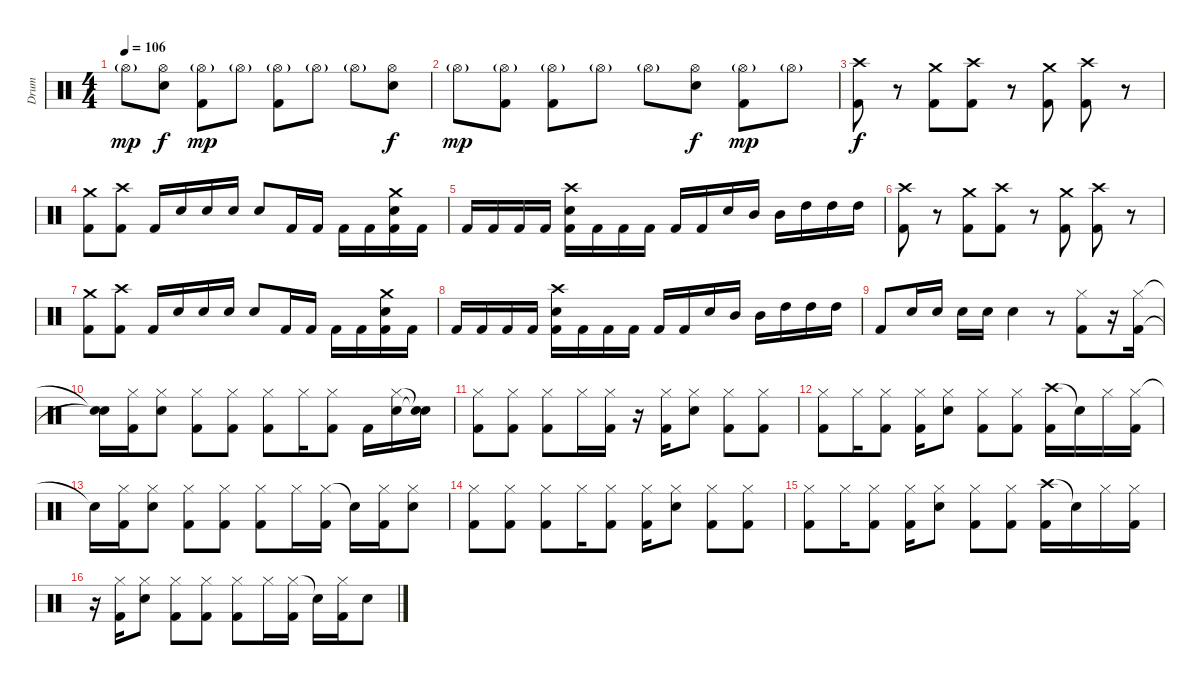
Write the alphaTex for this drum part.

\track ("Drum" "Drum") {instrument percussion}
\staff {score}
\articulation defaults
\ts (4 4)
\tempo 106
\clef neutral
\ks c "Hi-Hat (open)"{g}.8{dy mp}
("Hi-Hat (open)" "Electric Snare (hit)").8{dy f} ("Hi-Hat (open)"{g} "Kick (hit) 2").8{dy mp} "Hi-Hat (open)"{g}.8 ("Hi-Hat (open)"{g} "Kick (hit) 2").8 "Hi-Hat (open)"{g}.8 "Hi-Hat (open)"{g}.8 ("Hi-Hat (open)" "Electric Snare (hit)").8{dy f} |
"Hi-Hat (open)"{g}.8{dy mp} ("Hi-Hat (open)"{g} "Kick (hit) 2").8 ("Hi-Hat (open)"{g} "Kick (hit) 2").8 "Hi-Hat (open)"{g}.8 "Hi-Hat (open)"{g}.8 ("Hi-Hat (open)" "Electric Snare (hit)").8{dy f} ("Hi-Hat (open)"{g} "Kick (hit) 2").8{dy mp} "Hi-Hat (open)"{g}.8 |
("Crash high (hit)" "Kick (hit) 2").8{dy f} r.8 ("Crash medium (hit)" "Kick (hit) 2").8 ("Crash high (hit)" "Kick (hit) 2").8 r.8 ("Crash medium (hit)" "Kick (hit) 2").8 ("Crash high (hit)" "Kick (hit) 2").8 r.8 |
("Crash medium (hit)" "Kick (hit) 2").8 ("Crash high (hit)" "Kick (hit) 2").8 "Kick (hit) 2".16 "Electric Snare (hit)".16 "Electric Snare (hit)".16 "Electric Snare (hit)".16 "Electric Snare (hit)".8 "Kick (hit) 2".16 "Kick (hit) 2".16 "Kick (hit) 2".16 "Kick (hit) 2".16 ("Crash medium (hit)" "Kick (hit) 2" "Electric Snare (hit)").16 "Kick (hit) 2".16 |
"Kick (hit) 2".16 "Kick (hit) 2".16 "Kick (hit) 2".16 "Kick (hit) 2".16 ("Crash high (hit)" "Kick (hit) 2" "Electric Snare (hit)").16 "Kick (hit) 2".16 "Kick (hit) 2".16 "Kick (hit) 2".16 "Kick (hit) 2".16 "Kick (hit) 2".16 "Electric Snare (hit)".16 "Mid Tom (hit)".16 "Mid Tom (hit)".16 "High Tom (hit)".16 "High Tom (hit)".16 "High Tom (hit)".16 |
("Crash high (hit)" "Kick (hit) 2").8 r.8 ("Crash medium (hit)" "Kick (hit) 2").8 ("Crash high (hit)" "Kick (hit) 2").8 r.8 ("Crash medium (hit)" "Kick (hit) 2").8 ("Crash high (hit)" "Kick (hit) 2").8 r.8 |
("Crash medium (hit)" "Kick (hit) 2").8 ("Crash high (hit)" "Kick (hit) 2").8 "Kick (hit) 2".16 "Electric Snare (hit)".16 "Electric Snare (hit)".16 "Electric Snare (hit)".16 "Electric Snare (hit)".8 "Kick (hit) 2".16 "Kick (hit) 2".16 "Kick (hit) 2".16 "Kick (hit) 2".16 ("Crash medium (hit)" "Kick (hit) 2" "Electric Snare (hit)").16 "Kick (hit) 2".16 |
"Kick (hit) 2".16 "Kick (hit) 2".16 "Kick (hit) 2".16 "Kick (hit) 2".16 ("Crash high (hit)" "Kick (hit) 2" "Electric Snare (hit)").16 "Kick (hit) 2".16 "Kick (hit) 2".16 "Kick (hit) 2".16 "Kick (hit) 2".16 "Kick (hit) 2".16 "Electric Snare (hit)".16 "Mid Tom (hit)".16 "Mid Tom (hit)".16 "High Tom (hit)".16 "High Tom (hit)".16 "High Tom (hit)".16 |
"Kick (hit) 2".8 "Electric Snare (hit)".16 "Electric Snare (hit)".16 "Electric Snare (hit)".16 "Electric Snare (hit)".16 "Electric Snare (hit)".4 r.8 ("Hi-Hat (closed)" "Kick (hit) 2").8 r.16 ("Hi-Hat (closed)" "Kick (hit) 2").16 |
("Snare (hit)"{t} "Snare (hit)"{t}).16 ("Hi-Hat (closed)" "Kick (hit) 2").16 ("Hi-Hat (closed)" "Electric Snare (hit)").8 ("Hi-Hat (closed)" "Kick (hit) 2").8 ("Hi-Hat (closed)" "Kick (hit) 2").8 ("Hi-Hat (closed)" "Kick (hit) 2").8 "Hi-Hat (closed)".16 ("Hi-Hat (closed)" "Kick (hit) 2").8 "Kick (hit) 2".16 ("Hi-Hat (closed)" "Electric Snare (hit)").16 ("Snare (hit)"{t} "Snare (hit)"{t}).16 |
("Hi-Hat (closed)" "Kick (hit) 2").8 ("Hi-Hat (closed)" "Kick (hit) 2").8 ("Hi-Hat (closed)" "Kick (hit) 2").8 "Hi-Hat (closed)".16 ("Hi-Hat (closed)" "Kick (hit) 2").16 r.16 ("Hi-Hat (closed)" "Kick (hit) 2").16 ("Hi-Hat (closed)" "Electric Snare (hit)").8 ("Hi-Hat (closed)" "Kick (hit) 2").8 ("Hi-Hat (closed)" "Kick (hit) 2").8 |
("Hi-Hat (closed)" "Kick (hit) 2").8 "Hi-Hat (closed)".16 ("Hi-Hat (closed)" "Kick (hit) 2").8 ("Hi-Hat (closed)" "Kick (hit) 2").16 ("Hi-Hat (closed)" "Electric Snare (hit)").8 ("Hi-Hat (closed)" "Kick (hit) 2").8 ("Hi-Hat (closed)" "Kick (hit) 2").8 ("Crash high (hit)" "Kick (hit) 2").16 "Snare (hit)"{t}.16 "Hi-Hat (closed)".16 ("Hi-Hat (closed)" "Kick (hit) 2").16 |
"Snare (hit)"{t}.16 ("Hi-Hat (closed)" "Kick (hit) 2").16 ("Hi-Hat (closed)" "Electric Snare (hit)").8 ("Hi-Hat (closed)" "Kick (hit) 2").8 ("Hi-Hat (closed)" "Kick (hit) 2").8 ("Hi-Hat (closed)" "Kick (hit) 2").8 "Hi-Hat (closed)".16 ("Hi-Hat (closed)" "Kick (hit) 2").16 "Snare (hit)"{t}.16 ("Hi-Hat (closed)" "Kick (hit) 2").16 ("Hi-Hat (closed)" "Electric Snare (hit)").8 |
("Hi-Hat (closed)" "Kick (hit) 2").8 ("Hi-Hat (closed)" "Kick (hit) 2").8 ("Hi-Hat (closed)" "Kick (hit) 2").8 "Hi-Hat (closed)".16 ("Hi-Hat (closed)" "Kick (hit) 2").8 ("Hi-Hat (closed)" "Kick (hit) 2").16 ("Hi-Hat (closed)" "Electric Snare (hit)").8 ("Hi-Hat (closed)" "Kick (hit) 2").8 ("Hi-Hat (closed)" "Kick (hit) 2").8 |
("Hi-Hat (closed)" "Kick (hit) 2").8 "Hi-Hat (closed)".16 ("Hi-Hat (closed)" "Kick (hit) 2").8 ("Hi-Hat (closed)" "Kick (hit) 2").16 ("Hi-Hat (closed)" "Electric Snare (hit)").8 ("Hi-Hat (closed)" "Kick (hit) 2").8 ("Hi-Hat (closed)" "Kick (hit) 2").8 ("Crash high (hit)" "Kick (hit) 2").16 "Snare (hit)"{t}.16 "Hi-Hat (closed)".16 ("Hi-Hat (closed)" "Kick (hit) 2").16 |
r.16 ("Hi-Hat (closed)" "Kick (hit) 2").16 ("Hi-Hat (closed)" "Electric Snare (hit)").8 ("Hi-Hat (closed)" "Kick (hit) 2").8 ("Hi-Hat (closed)" "Kick (hit) 2").8 ("Hi-Hat (closed)" "Kick (hit) 2").8 "Hi-Hat (closed)".16 ("Hi-Hat (closed)" "Kick (hit) 2").16 "Snare (hit)"{t}.16 ("Hi-Hat (closed)" "Kick (hit) 2").16 "Electric Snare (hit)".8
